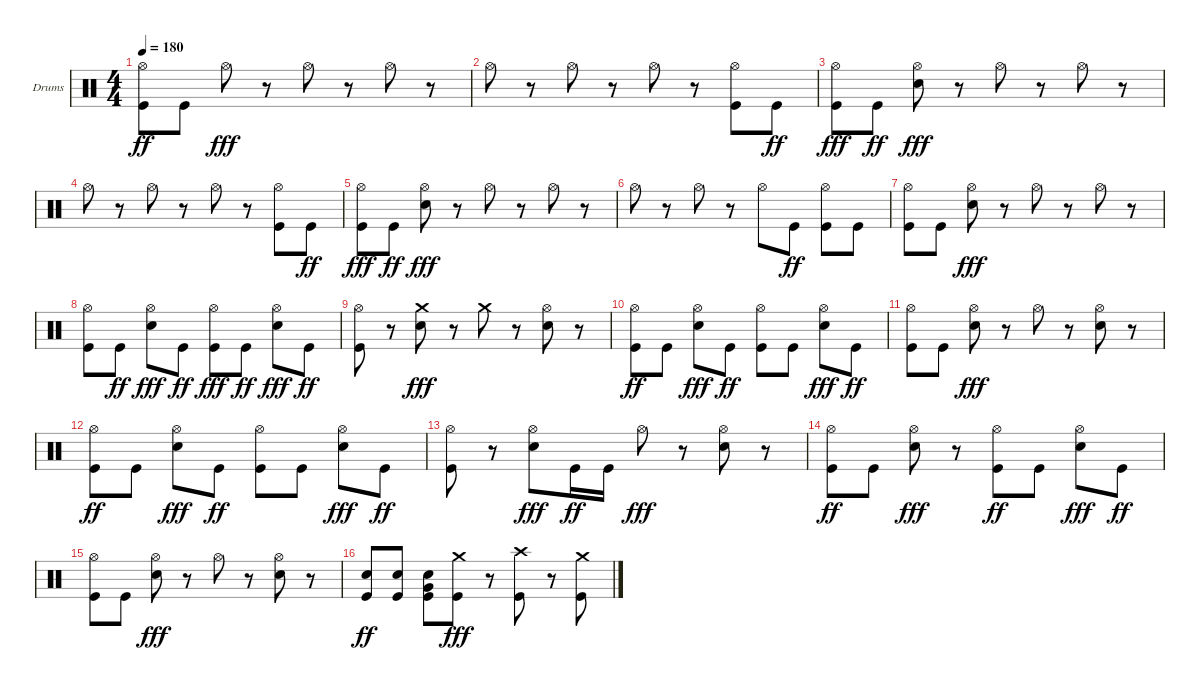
\bracketExtendMode groupsimilarinstruments
\firstSystemTrackNameOrientation horizontal
\otherSystemsTrackNameOrientation horizontal
\track ("Drumkit" "Drums") {instrument percussion}
\staff {score}
\articulation defaults
\ts (4 4)
\tempo 180
\clef neutral
\ks c
("Kick (hit)" "Hi-Hat (open)").8{dy ff} "Kick (hit)".8 "Hi-Hat (open)".8{dy fff} r.8 "Hi-Hat (open)".8 r.8 "Hi-Hat (open)".8 r.8 |
"Hi-Hat (open)".8 r.8 "Hi-Hat (open)".8 r.8 "Hi-Hat (open)".8 r.8 ("Hi-Hat (open)" "Kick (hit)").8 "Kick (hit)".8{dy ff} |
("Hi-Hat (open)" "Kick (hit)").8{dy fff} "Kick (hit)".8{dy ff} ("Hi-Hat (open)" "Snare (hit) 2").8{dy fff} r.8 "Hi-Hat (open)".8 r.8 "Hi-Hat (open)".8 r.8 |
"Hi-Hat (open)".8 r.8 "Hi-Hat (open)".8 r.8 "Hi-Hat (open)".8 r.8 ("Hi-Hat (open)" "Kick (hit)").8 "Kick (hit)".8{dy ff} |
("Hi-Hat (open)" "Kick (hit)").8{dy fff} "Kick (hit)".8{dy ff} ("Snare (hit) 2" "Hi-Hat (open)").8{dy fff} r.8 "Hi-Hat (open)".8 r.8 "Hi-Hat (open)".8 r.8 |
"Hi-Hat (open)".8 r.8 "Hi-Hat (open)".8 r.8 "Hi-Hat (open)".8 "Kick (hit)".8{dy ff} ("Kick (hit)" "Hi-Hat (open)").8 "Kick (hit)".8 |
("Kick (hit)" "Hi-Hat (open)").8 "Kick (hit)".8 ("Snare (hit) 2" "Hi-Hat (open)").8{dy fff} r.8 "Hi-Hat (open)".8 r.8 "Hi-Hat (open)".8 r.8 |
("Hi-Hat (open)" "Kick (hit)").8 "Kick (hit)".8{dy ff} ("Snare (hit) 2" "Hi-Hat (open)").8{dy fff} "Kick (hit)".8{dy ff} ("Hi-Hat (open)" "Kick (hit)").8{dy fff} "Kick (hit)".8{dy ff} ("Snare (hit) 2" "Hi-Hat (open)").8{dy fff} "Kick (hit)".8{dy ff} |
("Kick (hit)" "Hi-Hat (open)").8 r.8 ("Snare (hit) 2" "Crash medium (hit)").8{dy fff} r.8 "Crash medium (hit)".8 r.8 ("Snare (hit) 2" "Hi-Hat (open)").8 r.8 |
("Kick (hit)" "Hi-Hat (open)").8{dy ff} "Kick (hit)".8 ("Snare (hit) 2" "Hi-Hat (open)").8{dy fff} "Kick (hit)".8{dy ff} ("Kick (hit)" "Hi-Hat (open)").8 "Kick (hit)".8 ("Snare (hit) 2" "Hi-Hat (open)").8{dy fff} "Kick (hit)".8{dy ff} |
("Kick (hit)" "Hi-Hat (open)").8 "Kick (hit)".8 ("Snare (hit) 2" "Hi-Hat (open)").8{dy fff} r.8 "Hi-Hat (open)".8 r.8 ("Snare (hit) 2" "Hi-Hat (open)").8 r.8 |
("Kick (hit)" "Hi-Hat (open)").8{dy ff} "Kick (hit)".8 ("Snare (hit) 2" "Hi-Hat (open)").8{dy fff} "Kick (hit)".8{dy ff} ("Kick (hit)" "Hi-Hat (open)").8 "Kick (hit)".8 ("Snare (hit) 2" "Hi-Hat (open)").8{dy fff} "Kick (hit)".8{dy ff} |
("Kick (hit)" "Hi-Hat (open)").8 r.8 ("Snare (hit) 2" "Hi-Hat (open)").8{dy fff} "Kick (hit)".16{dy ff} "Kick (hit)".16 "Hi-Hat (open)".8{dy fff} r.8 ("Snare (hit) 2" "Hi-Hat (open)").8 r.8 |
("Kick (hit)" "Hi-Hat (open)").8{dy ff} "Kick (hit)".8 ("Snare (hit) 2" "Hi-Hat (open)").8{dy fff} r.8 ("Kick (hit)" "Hi-Hat (open)").8{dy ff} "Kick (hit)".8 ("Snare (hit) 2" "Hi-Hat (open)").8{dy fff} "Kick (hit)".8{dy ff} |
("Kick (hit)" "Hi-Hat (open)").8 "Kick (hit)".8 ("Snare (hit) 2" "Hi-Hat (open)").8{dy fff} r.8 "Hi-Hat (open)".8 r.8 ("Snare (hit) 2" "Hi-Hat (open)").8 r.8 |
("Kick (hit)" "Snare (hit) 2").8{dy ff} ("Kick (hit)" "Snare (hit) 2").8 ("Kick (hit)" "Very Low Tom (hit)" "Snare (hit) 2").8 ("Crash medium (hit)" "Kick (hit)").8{dy fff} r.8 ("Crash high (hit)" "Kick (hit)").8 r.8 ("Crash medium (hit)" "Kick (hit)").8
